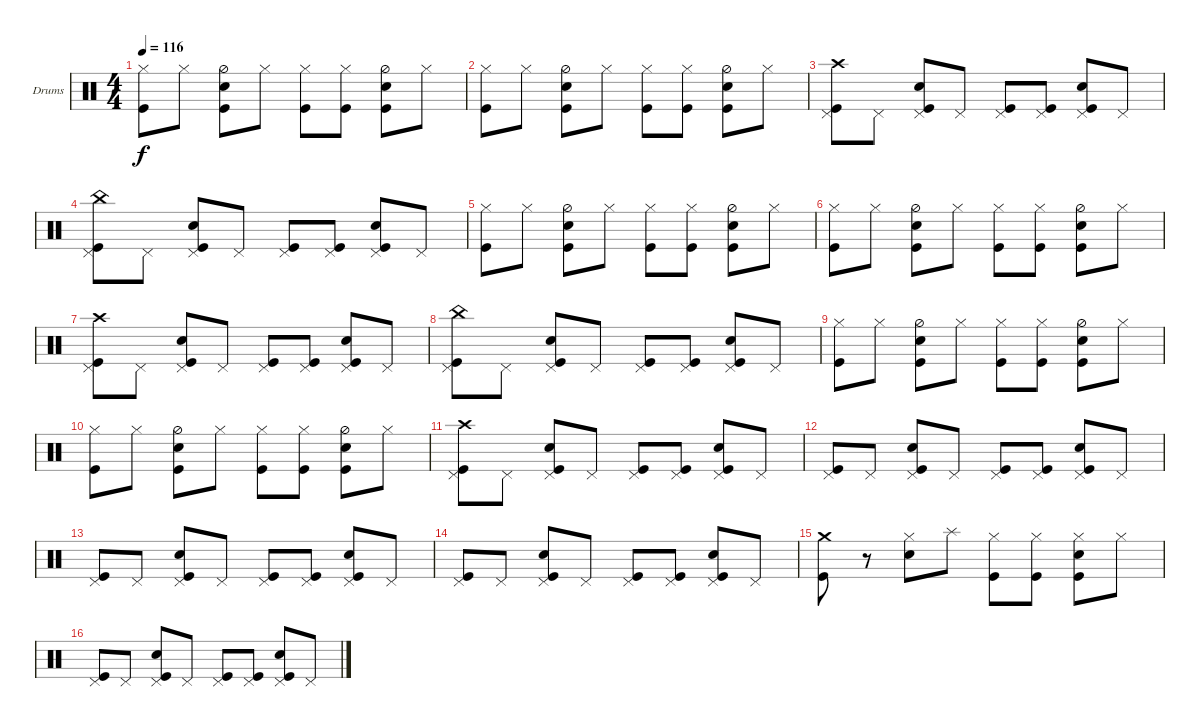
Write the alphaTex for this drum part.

\bracketExtendMode groupsimilarinstruments
\firstSystemTrackNameOrientation horizontal
\otherSystemsTrackNameOrientation horizontal
\track ("Mick Brown" "Drums") {instrument percussion}
\staff {score}
\articulation defaults
\ts (4 4)
\tempo 116
\clef neutral
\ks c
("Kick (hit)" "Hi-Hat (closed)").8{dy f} "Hi-Hat (closed)".8 ("Snare (hit) 2" "Kick (hit)" "Hi-Hat (half)").8 "Hi-Hat (closed)".8 ("Kick (hit)" "Hi-Hat (closed)").8 ("Kick (hit)" "Hi-Hat (closed)").8 ("Snare (hit) 2" "Kick (hit)" "Hi-Hat (half)").8 "Hi-Hat (closed)".8 |
("Kick (hit)" "Hi-Hat (closed)").8 "Hi-Hat (closed)".8 ("Snare (hit) 2" "Kick (hit)" "Hi-Hat (half)").8 "Hi-Hat (closed)".8 ("Kick (hit)" "Hi-Hat (closed)").8 ("Kick (hit)" "Hi-Hat (closed)").8 ("Snare (hit) 2" "Kick (hit)" "Hi-Hat (half)").8 "Hi-Hat (closed)".8 |
("Pedal Hi-Hat (hit)" "Kick (hit)" "Crash high (hit)").8 "Pedal Hi-Hat (hit)".8 ("Pedal Hi-Hat (hit)" "Snare (hit) 2" "Kick (hit)").8 "Pedal Hi-Hat (hit)".8 ("Pedal Hi-Hat (hit)" "Kick (hit)").8 ("Pedal Hi-Hat (hit)" "Kick (hit)").8 ("Pedal Hi-Hat (hit)" "Snare (hit) 2" "Kick (hit)").8 "Pedal Hi-Hat (hit)".8 |
("Pedal Hi-Hat (hit)" "Kick (hit)" "China (hit)").8 "Pedal Hi-Hat (hit)".8 ("Pedal Hi-Hat (hit)" "Snare (hit) 2" "Kick (hit)").8 "Pedal Hi-Hat (hit)".8 ("Pedal Hi-Hat (hit)" "Kick (hit)").8 ("Pedal Hi-Hat (hit)" "Kick (hit)").8 ("Pedal Hi-Hat (hit)" "Snare (hit) 2" "Kick (hit)").8 "Pedal Hi-Hat (hit)".8 |
("Kick (hit)" "Hi-Hat (closed)").8 "Hi-Hat (closed)".8 ("Snare (hit) 2" "Kick (hit)" "Hi-Hat (half)").8 "Hi-Hat (closed)".8 ("Kick (hit)" "Hi-Hat (closed)").8 ("Kick (hit)" "Hi-Hat (closed)").8 ("Snare (hit) 2" "Kick (hit)" "Hi-Hat (half)").8 "Hi-Hat (closed)".8 |
("Kick (hit)" "Hi-Hat (closed)").8 "Hi-Hat (closed)".8 ("Snare (hit) 2" "Kick (hit)" "Hi-Hat (half)").8 "Hi-Hat (closed)".8 ("Kick (hit)" "Hi-Hat (closed)").8 ("Kick (hit)" "Hi-Hat (closed)").8 ("Snare (hit) 2" "Kick (hit)" "Hi-Hat (half)").8 "Hi-Hat (closed)".8 |
("Pedal Hi-Hat (hit)" "Kick (hit)" "Crash high (hit)").8 "Pedal Hi-Hat (hit)".8 ("Pedal Hi-Hat (hit)" "Snare (hit) 2" "Kick (hit)").8 "Pedal Hi-Hat (hit)".8 ("Pedal Hi-Hat (hit)" "Kick (hit)").8 ("Pedal Hi-Hat (hit)" "Kick (hit)").8 ("Pedal Hi-Hat (hit)" "Snare (hit) 2" "Kick (hit)").8 "Pedal Hi-Hat (hit)".8 |
("Pedal Hi-Hat (hit)" "Kick (hit)" "China (hit)").8 "Pedal Hi-Hat (hit)".8 ("Pedal Hi-Hat (hit)" "Snare (hit) 2" "Kick (hit)").8 "Pedal Hi-Hat (hit)".8 ("Pedal Hi-Hat (hit)" "Kick (hit)").8 ("Pedal Hi-Hat (hit)" "Kick (hit)").8 ("Pedal Hi-Hat (hit)" "Snare (hit) 2" "Kick (hit)").8 "Pedal Hi-Hat (hit)".8 |
("Kick (hit)" "Hi-Hat (closed)").8 "Hi-Hat (closed)".8 ("Snare (hit) 2" "Kick (hit)" "Hi-Hat (half)").8 "Hi-Hat (closed)".8 ("Kick (hit)" "Hi-Hat (closed)").8 ("Kick (hit)" "Hi-Hat (closed)").8 ("Snare (hit) 2" "Kick (hit)" "Hi-Hat (half)").8 "Hi-Hat (closed)".8 |
("Kick (hit)" "Hi-Hat (closed)").8 "Hi-Hat (closed)".8 ("Snare (hit) 2" "Kick (hit)" "Hi-Hat (half)").8 "Hi-Hat (closed)".8 ("Kick (hit)" "Hi-Hat (closed)").8 ("Kick (hit)" "Hi-Hat (closed)").8 ("Snare (hit) 2" "Kick (hit)" "Hi-Hat (half)").8 "Hi-Hat (closed)".8 |
("Pedal Hi-Hat (hit)" "Kick (hit)" "Crash high (hit)").8 "Pedal Hi-Hat (hit)".8 ("Pedal Hi-Hat (hit)" "Snare (hit) 2" "Kick (hit)").8 "Pedal Hi-Hat (hit)".8 ("Pedal Hi-Hat (hit)" "Kick (hit)").8 ("Pedal Hi-Hat (hit)" "Kick (hit)").8 ("Pedal Hi-Hat (hit)" "Snare (hit) 2" "Kick (hit)").8 "Pedal Hi-Hat (hit)".8 |
("Pedal Hi-Hat (hit)" "Kick (hit)").8 "Pedal Hi-Hat (hit)".8 ("Pedal Hi-Hat (hit)" "Snare (hit) 2" "Kick (hit)").8 "Pedal Hi-Hat (hit)".8 ("Pedal Hi-Hat (hit)" "Kick (hit)").8 ("Pedal Hi-Hat (hit)" "Kick (hit)").8 ("Pedal Hi-Hat (hit)" "Snare (hit) 2" "Kick (hit)").8 "Pedal Hi-Hat (hit)".8 |
("Pedal Hi-Hat (hit)" "Kick (hit)").8 "Pedal Hi-Hat (hit)".8 ("Pedal Hi-Hat (hit)" "Snare (hit) 2" "Kick (hit)").8 "Pedal Hi-Hat (hit)".8 ("Pedal Hi-Hat (hit)" "Kick (hit)").8 ("Pedal Hi-Hat (hit)" "Kick (hit)").8 ("Pedal Hi-Hat (hit)" "Snare (hit) 2" "Kick (hit)").8 "Pedal Hi-Hat (hit)".8 |
("Pedal Hi-Hat (hit)" "Kick (hit)").8 "Pedal Hi-Hat (hit)".8 ("Pedal Hi-Hat (hit)" "Snare (hit) 2" "Kick (hit)").8 "Pedal Hi-Hat (hit)".8 ("Pedal Hi-Hat (hit)" "Kick (hit)").8 ("Pedal Hi-Hat (hit)" "Kick (hit)").8 ("Pedal Hi-Hat (hit)" "Snare (hit) 2" "Kick (hit)").8 "Pedal Hi-Hat (hit)".8 |
("Kick (hit)" "Crash medium (hit)").8 r.8 ("Snare (hit) 2" "Hi-Hat (closed)").8 "Splash (hit)".8 ("Kick (hit)" "Hi-Hat (closed)").8 ("Kick (hit)" "Hi-Hat (closed)").8 ("Snare (hit) 2" "Kick (hit)" "Hi-Hat (closed)").8 "Hi-Hat (closed)".8 |
("Pedal Hi-Hat (hit)" "Kick (hit)").8 "Pedal Hi-Hat (hit)".8 ("Pedal Hi-Hat (hit)" "Snare (hit) 2" "Kick (hit)").8 "Pedal Hi-Hat (hit)".8 ("Pedal Hi-Hat (hit)" "Kick (hit)").8 ("Pedal Hi-Hat (hit)" "Kick (hit)").8 ("Pedal Hi-Hat (hit)" "Snare (hit) 2" "Kick (hit)").8 "Pedal Hi-Hat (hit)".8
